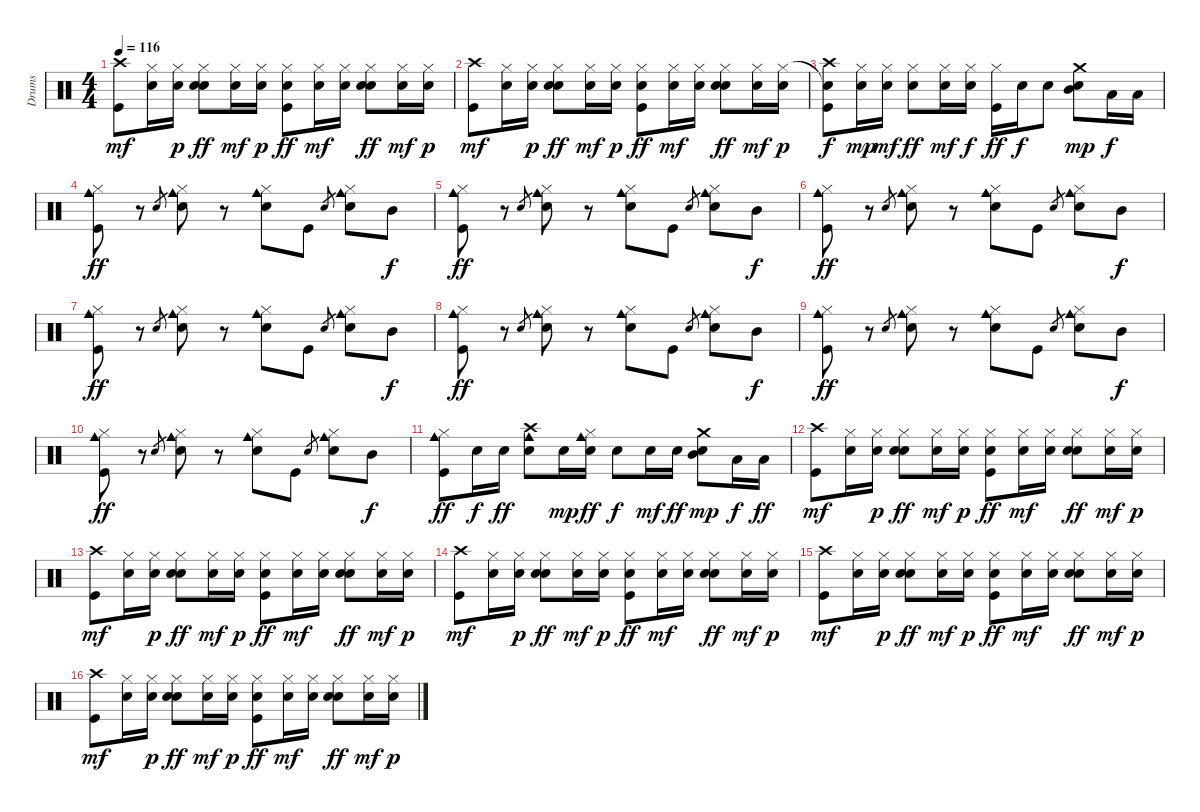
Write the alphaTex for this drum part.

\track ("Drums" "Drums") {instrument percussion}
\staff {score}
\articulation defaults
\ts (4 4)
\tempo 116
\clef neutral
\ks c
("Kick (hit)" "Crash high (hit)").8{dy mf} ("Snare (hit) 2" "Hi-Hat (closed)").16 ("Snare (hit) 2" "Hi-Hat (closed)").16{dy p} ("Snare (hit) 2" "Electric Snare (hit)" "Hi-Hat (closed)").8{dy ff} ("Snare (hit) 2" "Hi-Hat (closed)").16{dy mf} ("Snare (hit) 2" "Hi-Hat (closed)").16{dy p} ("Kick (hit)" "Snare (hit) 2" "Hi-Hat (closed)").8{dy ff} ("Snare (hit) 2" "Hi-Hat (closed)").16{dy mf} ("Snare (hit) 2" "Hi-Hat (closed)").16 ("Snare (hit) 2" "Electric Snare (hit)" "Hi-Hat (closed)").8{dy ff} ("Snare (hit) 2" "Hi-Hat (closed)").16{dy mf} ("Snare (hit) 2" "Hi-Hat (closed)").16{dy p} |
("Kick (hit)" "Crash high (hit)").8{dy mf} ("Snare (hit) 2" "Hi-Hat (closed)").16 ("Snare (hit) 2" "Hi-Hat (closed)").16{dy p} ("Snare (hit) 2" "Electric Snare (hit)" "Hi-Hat (closed)").8{dy ff} ("Snare (hit) 2" "Hi-Hat (closed)").16{dy mf} ("Snare (hit) 2" "Hi-Hat (closed)").16{dy p} ("Kick (hit)" "Snare (hit) 2" "Hi-Hat (closed)").8{dy ff} ("Snare (hit) 2" "Hi-Hat (closed)").16{dy mf} ("Snare (hit) 2" "Hi-Hat (closed)").16 ("Snare (hit) 2" "Electric Snare (hit)" "Hi-Hat (closed)").8{dy ff} ("Snare (hit) 2" "Hi-Hat (closed)").16{dy mf} ("Snare (hit) 2" "Hi-Hat (closed)").16{dy p} |
("Kick (hit)" "Snare (hit)"{t} "Crash high (hit)").8{dy f} ("Snare (hit) 2" "Hi-Hat (closed)").16{dy mp} ("Snare (hit) 2" "Hi-Hat (closed)").16{dy mf} ("Electric Snare (hit)" "Hi-Hat (closed)").8{dy ff} ("Snare (hit) 2" "Hi-Hat (closed)").16{dy mf} ("Snare (hit) 2" "Hi-Hat (closed)").16{dy f} ("Kick (hit)" "Hi-Hat (closed)").16{dy ff} "Snare (hit) 2".16{dy f} "Snare (hit) 2".8 ("Electric Snare (hit)" "Mid Tom (hit)" "Crash medium (hit)").8{dy mp} "Low Tom (hit)".16{dy f} "Low Floor Tom (hit)".16 |
("Kick (hit)" "Hi-Hat (closed)" "Cowbell medium (hit)").8{dy ff} r.8 "Electric Snare (hit)".8{gr} ("Snare (hit) 2" "Hi-Hat (closed)" "Cowbell medium (hit)").8 r.8 ("Snare (hit) 2" "Hi-Hat (closed)" "Cowbell medium (hit)").8 "Kick (hit)".8 "Electric Snare (hit)".8{gr} ("Snare (hit) 2" "Hi-Hat (closed)" "Cowbell medium (hit)").8 "Mid Tom (hit)".8{dy f} |
("Kick (hit)" "Hi-Hat (closed)" "Cowbell medium (hit)").8{dy ff} r.8 "Electric Snare (hit)".8{gr} ("Snare (hit) 2" "Hi-Hat (closed)" "Cowbell medium (hit)").8 r.8 ("Snare (hit) 2" "Hi-Hat (closed)" "Cowbell medium (hit)").8 "Kick (hit)".8 "Electric Snare (hit)".8{gr} ("Snare (hit) 2" "Hi-Hat (closed)" "Cowbell medium (hit)").8 "Mid Tom (hit)".8{dy f} |
("Kick (hit)" "Hi-Hat (closed)" "Cowbell medium (hit)").8{dy ff} r.8 "Electric Snare (hit)".8{gr} ("Snare (hit) 2" "Hi-Hat (closed)" "Cowbell medium (hit)").8 r.8 ("Snare (hit) 2" "Hi-Hat (closed)" "Cowbell medium (hit)").8 "Kick (hit)".8 "Electric Snare (hit)".8{gr} ("Snare (hit) 2" "Hi-Hat (closed)" "Cowbell medium (hit)").8 "Mid Tom (hit)".8{dy f} |
("Kick (hit)" "Hi-Hat (closed)" "Cowbell medium (hit)").8{dy ff} r.8 "Electric Snare (hit)".8{gr} ("Snare (hit) 2" "Hi-Hat (closed)" "Cowbell medium (hit)").8 r.8 ("Snare (hit) 2" "Hi-Hat (closed)" "Cowbell medium (hit)").8 "Kick (hit)".8 "Electric Snare (hit)".8{gr} ("Snare (hit) 2" "Hi-Hat (closed)" "Cowbell medium (hit)").8 "Mid Tom (hit)".8{dy f} |
("Kick (hit)" "Hi-Hat (closed)" "Cowbell medium (hit)").8{dy ff} r.8 "Electric Snare (hit)".8{gr} ("Snare (hit) 2" "Hi-Hat (closed)" "Cowbell medium (hit)").8 r.8 ("Snare (hit) 2" "Hi-Hat (closed)" "Cowbell medium (hit)").8 "Kick (hit)".8 "Electric Snare (hit)".8{gr} ("Snare (hit) 2" "Hi-Hat (closed)" "Cowbell medium (hit)").8 "Mid Tom (hit)".8{dy f} |
("Kick (hit)" "Hi-Hat (closed)" "Cowbell medium (hit)").8{dy ff} r.8 "Electric Snare (hit)".8{gr} ("Snare (hit) 2" "Hi-Hat (closed)" "Cowbell medium (hit)").8 r.8 ("Snare (hit) 2" "Hi-Hat (closed)" "Cowbell medium (hit)").8 "Kick (hit)".8 "Electric Snare (hit)".8{gr} ("Snare (hit) 2" "Hi-Hat (closed)" "Cowbell medium (hit)").8 "Mid Tom (hit)".8{dy f} |
("Kick (hit)" "Hi-Hat (closed)" "Cowbell medium (hit)").8{dy ff} r.8 "Electric Snare (hit)".8{gr} ("Snare (hit) 2" "Hi-Hat (closed)" "Cowbell medium (hit)").8 r.8 ("Snare (hit) 2" "Hi-Hat (closed)" "Cowbell medium (hit)").8 "Kick (hit)".8 "Electric Snare (hit)".8{gr} ("Snare (hit) 2" "Hi-Hat (closed)" "Cowbell medium (hit)").8 "Mid Tom (hit)".8{dy f} |
("Kick (hit)" "Hi-Hat (closed)" "Cowbell medium (hit)").8{dy ff} "Snare (hit) 2".16{dy f} "Snare (hit) 2".16{dy ff} ("Electric Snare (hit)" "Crash high (hit)" "Cowbell medium (hit)").8 "Snare (hit) 2".16{dy mp} ("Snare (hit) 2" "Hi-Hat (closed)" "Cowbell medium (hit)").16{dy ff} "Snare (hit) 2".8{dy f} "Snare (hit) 2".16{dy mf} "Snare (hit) 2".16{dy ff} ("Electric Snare (hit)" "Mid Tom (hit)" "Crash medium (hit)").8{dy mp} "Low Tom (hit)".16{dy f} "Low Floor Tom (hit)".16{dy ff} |
("Kick (hit)" "Crash high (hit)").8{dy mf} ("Snare (hit) 2" "Hi-Hat (closed)").16 ("Snare (hit) 2" "Hi-Hat (closed)").16{dy p} ("Snare (hit) 2" "Electric Snare (hit)" "Hi-Hat (closed)").8{dy ff} ("Snare (hit) 2" "Hi-Hat (closed)").16{dy mf} ("Snare (hit) 2" "Hi-Hat (closed)").16{dy p} ("Kick (hit)" "Snare (hit) 2" "Hi-Hat (closed)").8{dy ff} ("Snare (hit) 2" "Hi-Hat (closed)").16{dy mf} ("Snare (hit) 2" "Hi-Hat (closed)").16 ("Snare (hit) 2" "Electric Snare (hit)" "Hi-Hat (closed)").8{dy ff} ("Snare (hit) 2" "Hi-Hat (closed)").16{dy mf} ("Snare (hit) 2" "Hi-Hat (closed)").16{dy p} |
("Kick (hit)" "Crash high (hit)").8{dy mf} ("Snare (hit) 2" "Hi-Hat (closed)").16 ("Snare (hit) 2" "Hi-Hat (closed)").16{dy p} ("Snare (hit) 2" "Electric Snare (hit)" "Hi-Hat (closed)").8{dy ff} ("Snare (hit) 2" "Hi-Hat (closed)").16{dy mf} ("Snare (hit) 2" "Hi-Hat (closed)").16{dy p} ("Kick (hit)" "Snare (hit) 2" "Hi-Hat (closed)").8{dy ff} ("Snare (hit) 2" "Hi-Hat (closed)").16{dy mf} ("Snare (hit) 2" "Hi-Hat (closed)").16 ("Snare (hit) 2" "Electric Snare (hit)" "Hi-Hat (closed)").8{dy ff} ("Snare (hit) 2" "Hi-Hat (closed)").16{dy mf} ("Snare (hit) 2" "Hi-Hat (closed)").16{dy p} |
("Kick (hit)" "Crash high (hit)").8{dy mf} ("Snare (hit) 2" "Hi-Hat (closed)").16 ("Snare (hit) 2" "Hi-Hat (closed)").16{dy p} ("Snare (hit) 2" "Electric Snare (hit)" "Hi-Hat (closed)").8{dy ff} ("Snare (hit) 2" "Hi-Hat (closed)").16{dy mf} ("Snare (hit) 2" "Hi-Hat (closed)").16{dy p} ("Kick (hit)" "Snare (hit) 2" "Hi-Hat (closed)").8{dy ff} ("Snare (hit) 2" "Hi-Hat (closed)").16{dy mf} ("Snare (hit) 2" "Hi-Hat (closed)").16 ("Snare (hit) 2" "Electric Snare (hit)" "Hi-Hat (closed)").8{dy ff} ("Snare (hit) 2" "Hi-Hat (closed)").16{dy mf} ("Snare (hit) 2" "Hi-Hat (closed)").16{dy p} |
("Kick (hit)" "Crash high (hit)").8{dy mf} ("Snare (hit) 2" "Hi-Hat (closed)").16 ("Snare (hit) 2" "Hi-Hat (closed)").16{dy p} ("Snare (hit) 2" "Electric Snare (hit)" "Hi-Hat (closed)").8{dy ff} ("Snare (hit) 2" "Hi-Hat (closed)").16{dy mf} ("Snare (hit) 2" "Hi-Hat (closed)").16{dy p} ("Kick (hit)" "Snare (hit) 2" "Hi-Hat (closed)").8{dy ff} ("Snare (hit) 2" "Hi-Hat (closed)").16{dy mf} ("Snare (hit) 2" "Hi-Hat (closed)").16 ("Snare (hit) 2" "Electric Snare (hit)" "Hi-Hat (closed)").8{dy ff} ("Snare (hit) 2" "Hi-Hat (closed)").16{dy mf} ("Snare (hit) 2" "Hi-Hat (closed)").16{dy p} |
("Kick (hit)" "Crash high (hit)").8{dy mf} ("Snare (hit) 2" "Hi-Hat (closed)").16 ("Snare (hit) 2" "Hi-Hat (closed)").16{dy p} ("Snare (hit) 2" "Electric Snare (hit)" "Hi-Hat (closed)").8{dy ff} ("Snare (hit) 2" "Hi-Hat (closed)").16{dy mf} ("Snare (hit) 2" "Hi-Hat (closed)").16{dy p} ("Kick (hit)" "Snare (hit) 2" "Hi-Hat (closed)").8{dy ff} ("Snare (hit) 2" "Hi-Hat (closed)").16{dy mf} ("Snare (hit) 2" "Hi-Hat (closed)").16 ("Snare (hit) 2" "Electric Snare (hit)" "Hi-Hat (closed)").8{dy ff} ("Snare (hit) 2" "Hi-Hat (closed)").16{dy mf} ("Snare (hit) 2" "Hi-Hat (closed)").16{dy p}
